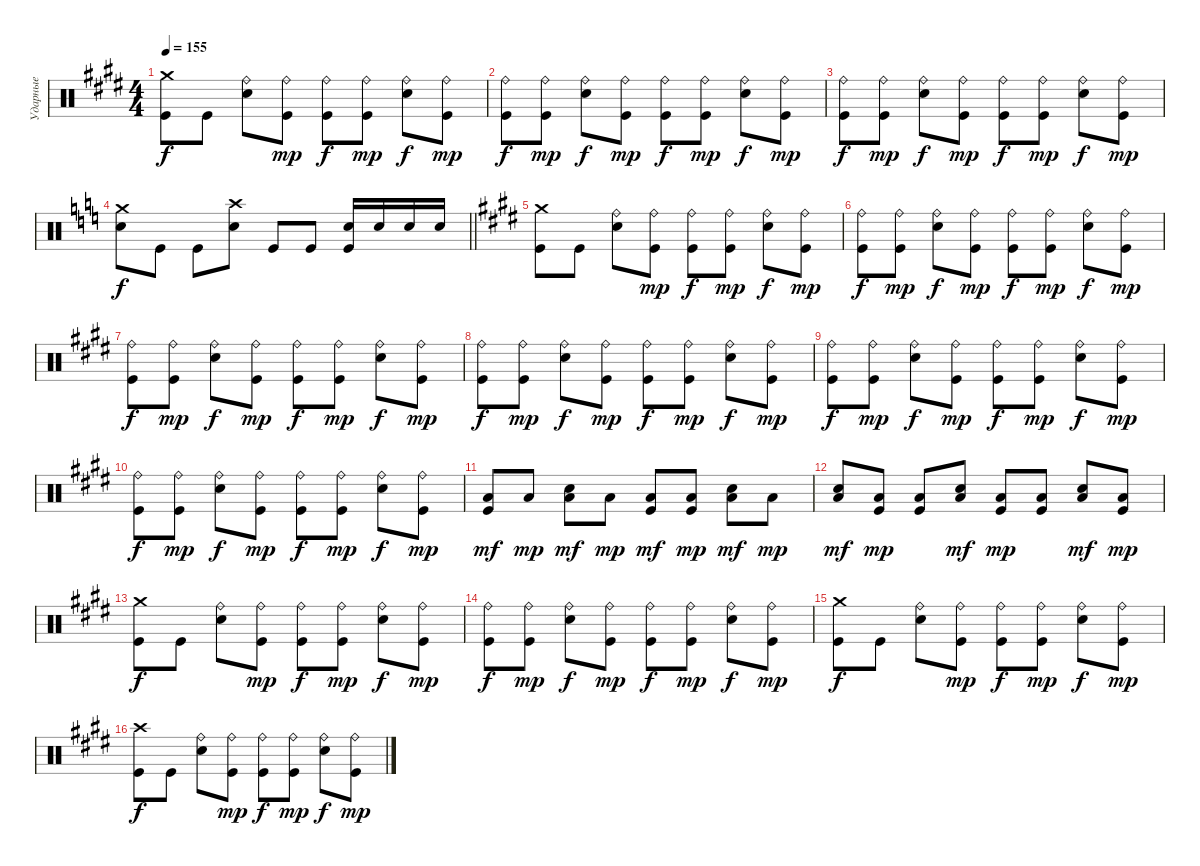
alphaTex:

\track ("Ударные" "Ударные") {instrument percussion}
\staff {score}
\articulation defaults
\ts (4 4)
\tempo 155
\clef neutral
\ks e
("Crash medium (hit)" "Kick (hit)").8{dy f} "Kick (hit)".8 ("Ride (bell)" "Electric Snare (hit)").8 ("Ride (bell)" "Kick (hit)").8{dy mp} ("Ride (bell)" "Kick (hit)").8{dy f} ("Ride (bell)" "Kick (hit)").8{dy mp} ("Ride (bell)" "Electric Snare (hit)").8{dy f} ("Ride (bell)" "Kick (hit)").8{dy mp} |
("Ride (bell)" "Kick (hit)").8{dy f} ("Ride (bell)" "Kick (hit)").8{dy mp} ("Ride (bell)" "Electric Snare (hit)").8{dy f} ("Ride (bell)" "Kick (hit)").8{dy mp} ("Ride (bell)" "Kick (hit)").8{dy f} ("Ride (bell)" "Kick (hit)").8{dy mp} ("Ride (bell)" "Electric Snare (hit)").8{dy f} ("Ride (bell)" "Kick (hit)").8{dy mp} |
("Ride (bell)" "Kick (hit)").8{dy f} ("Ride (bell)" "Kick (hit)").8{dy mp} ("Ride (bell)" "Electric Snare (hit)").8{dy f} ("Ride (bell)" "Kick (hit)").8{dy mp} ("Ride (bell)" "Kick (hit)").8{dy f} ("Ride (bell)" "Kick (hit)").8{dy mp} ("Ride (bell)" "Electric Snare (hit)").8{dy f} ("Ride (bell)" "Kick (hit)").8{dy mp} |
\barLineRight lightlight
\ks c
("Crash medium (hit)" "Electric Snare (hit)").8{dy f} "Kick (hit)".8 "Kick (hit)".8 ("Crash high (hit)" "Electric Snare (hit)").8 "Kick (hit)".8 "Kick (hit)".8 ("Electric Snare (hit)" "Kick (hit)").16 "Electric Snare (hit)".16 "Electric Snare (hit)".16 "Electric Snare (hit)".16 |
\section ("" " ")
\ks e
("Crash medium (hit)" "Kick (hit)").8 "Kick (hit)".8 ("Ride (bell)" "Electric Snare (hit)").8 ("Ride (bell)" "Kick (hit)").8{dy mp} ("Ride (bell)" "Kick (hit)").8{dy f} ("Ride (bell)" "Kick (hit)").8{dy mp} ("Ride (bell)" "Electric Snare (hit)").8{dy f} ("Ride (bell)" "Kick (hit)").8{dy mp} |
("Ride (bell)" "Kick (hit)").8{dy f} ("Ride (bell)" "Kick (hit)").8{dy mp} ("Ride (bell)" "Electric Snare (hit)").8{dy f} ("Ride (bell)" "Kick (hit)").8{dy mp} ("Ride (bell)" "Kick (hit)").8{dy f} ("Ride (bell)" "Kick (hit)").8{dy mp} ("Ride (bell)" "Electric Snare (hit)").8{dy f} ("Ride (bell)" "Kick (hit)").8{dy mp} |
("Ride (bell)" "Kick (hit)").8{dy f} ("Ride (bell)" "Kick (hit)").8{dy mp} ("Ride (bell)" "Electric Snare (hit)").8{dy f} ("Ride (bell)" "Kick (hit)").8{dy mp} ("Ride (bell)" "Kick (hit)").8{dy f} ("Ride (bell)" "Kick (hit)").8{dy mp} ("Ride (bell)" "Electric Snare (hit)").8{dy f} ("Ride (bell)" "Kick (hit)").8{dy mp} |
("Ride (bell)" "Kick (hit)").8{dy f} ("Ride (bell)" "Kick (hit)").8{dy mp} ("Ride (bell)" "Electric Snare (hit)").8{dy f} ("Ride (bell)" "Kick (hit)").8{dy mp} ("Ride (bell)" "Kick (hit)").8{dy f} ("Ride (bell)" "Kick (hit)").8{dy mp} ("Ride (bell)" "Electric Snare (hit)").8{dy f} ("Ride (bell)" "Kick (hit)").8{dy mp} |
("Ride (bell)" "Kick (hit)").8{dy f} ("Ride (bell)" "Kick (hit)").8{dy mp} ("Ride (bell)" "Electric Snare (hit)").8{dy f} ("Ride (bell)" "Kick (hit)").8{dy mp} ("Ride (bell)" "Kick (hit)").8{dy f} ("Ride (bell)" "Kick (hit)").8{dy mp} ("Ride (bell)" "Electric Snare (hit)").8{dy f} ("Ride (bell)" "Kick (hit)").8{dy mp} |
("Ride (bell)" "Kick (hit)").8{dy f} ("Ride (bell)" "Kick (hit)").8{dy mp} ("Ride (bell)" "Electric Snare (hit)").8{dy f} ("Ride (bell)" "Kick (hit)").8{dy mp} ("Ride (bell)" "Kick (hit)").8{dy f} ("Ride (bell)" "Kick (hit)").8{dy mp} ("Ride (bell)" "Electric Snare (hit)").8{dy f} ("Ride (bell)" "Kick (hit)").8{dy mp} |
("Low Tom (hit)" "Kick (hit)").8{dy mf} "Low Tom (hit)".8{dy mp} ("Low Tom (hit)" "Electric Snare (hit)").8{dy mf} "Low Tom (hit)".8{dy mp} ("Low Tom (hit)" "Kick (hit)").8{dy mf} ("Low Tom (hit)" "Kick (hit)").8{dy mp} ("Low Tom (hit)" "Electric Snare (hit)").8{dy mf} "Low Tom (hit)".8{dy mp} |
("Low Tom (hit)" "Electric Snare (hit)").8{dy mf} ("Low Tom (hit)" "Kick (hit)").8{dy mp} ("Low Tom (hit)" "Kick (hit)").8 ("Low Tom (hit)" "Electric Snare (hit)").8{dy mf} ("Low Tom (hit)" "Kick (hit)").8{dy mp} ("Low Tom (hit)" "Kick (hit)").8 ("Low Tom (hit)" "Electric Snare (hit)").8{dy mf} ("Low Tom (hit)" "Kick (hit)").8{dy mp} |
("Crash medium (hit)" "Kick (hit)").8{dy f} "Kick (hit)".8 ("Ride (bell)" "Electric Snare (hit)").8 ("Ride (bell)" "Kick (hit)").8{dy mp} ("Ride (bell)" "Kick (hit)").8{dy f} ("Ride (bell)" "Kick (hit)").8{dy mp} ("Ride (bell)" "Electric Snare (hit)").8{dy f} ("Ride (bell)" "Kick (hit)").8{dy mp} |
("Ride (bell)" "Kick (hit)").8{dy f} ("Ride (bell)" "Kick (hit)").8{dy mp} ("Ride (bell)" "Electric Snare (hit)").8{dy f} ("Ride (bell)" "Kick (hit)").8{dy mp} ("Ride (bell)" "Kick (hit)").8{dy f} ("Ride (bell)" "Kick (hit)").8{dy mp} ("Ride (bell)" "Electric Snare (hit)").8{dy f} ("Ride (bell)" "Kick (hit)").8{dy mp} |
("Crash medium (hit)" "Kick (hit)").8{dy f} "Kick (hit)".8 ("Ride (bell)" "Electric Snare (hit)").8 ("Ride (bell)" "Kick (hit)").8{dy mp} ("Ride (bell)" "Kick (hit)").8{dy f} ("Ride (bell)" "Kick (hit)").8{dy mp} ("Ride (bell)" "Electric Snare (hit)").8{dy f} ("Ride (bell)" "Kick (hit)").8{dy mp} |
("Crash high (hit)" "Kick (hit)").8{dy f} "Kick (hit)".8 ("Ride (bell)" "Electric Snare (hit)").8 ("Ride (bell)" "Kick (hit)").8{dy mp} ("Ride (bell)" "Kick (hit)").8{dy f} ("Ride (bell)" "Kick (hit)").8{dy mp} ("Ride (bell)" "Electric Snare (hit)").8{dy f} ("Ride (bell)" "Kick (hit)").8{dy mp}
